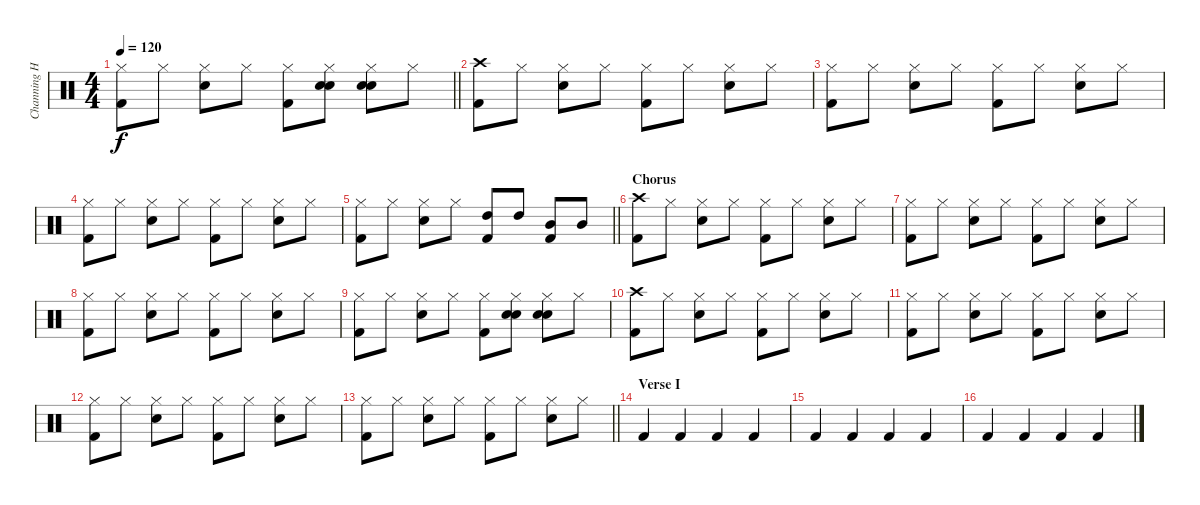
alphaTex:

\track ("Channing Holmes' drums" "Channing H") {instrument percussion}
\staff {score}
\articulation defaults
\ts (4 4)
\tempo 120
\clef neutral
\barLineRight lightlight
\ks c
("Hi-Hat (closed)" "Kick (hit) 2").8{dy f} "Hi-Hat (closed)".8 ("Hi-Hat (closed)" "Snare (hit) 2").8 "Hi-Hat (closed)".8 ("Hi-Hat (closed)" "Kick (hit) 2").8 ("Hand Clap (hit)" "Hi-Hat (closed)" "Snare (hit) 2").8 ("Hand Clap (hit)" "Hi-Hat (closed)" "Snare (hit) 2").8 "Hi-Hat (closed)".8 |
("Crash high (hit)" "Kick (hit) 2").8 "Hi-Hat (closed)".8 ("Hi-Hat (closed)" "Snare (hit) 2").8 "Hi-Hat (closed)".8 ("Hi-Hat (closed)" "Kick (hit) 2").8 "Hi-Hat (closed)".8 ("Hi-Hat (closed)" "Snare (hit) 2").8 "Hi-Hat (closed)".8 |
("Hi-Hat (closed)" "Kick (hit) 2").8 "Hi-Hat (closed)".8 ("Hi-Hat (closed)" "Snare (hit) 2").8 "Hi-Hat (closed)".8 ("Hi-Hat (closed)" "Kick (hit) 2").8 "Hi-Hat (closed)".8 ("Hi-Hat (closed)" "Snare (hit) 2").8 "Hi-Hat (closed)".8 |
("Hi-Hat (closed)" "Kick (hit) 2").8 "Hi-Hat (closed)".8 ("Hi-Hat (closed)" "Snare (hit) 2").8 "Hi-Hat (closed)".8 ("Hi-Hat (closed)" "Kick (hit) 2").8 "Hi-Hat (closed)".8 ("Hi-Hat (closed)" "Snare (hit) 2").8 "Hi-Hat (closed)".8 |
\barLineRight lightlight
("Hi-Hat (closed)" "Kick (hit) 2").8 "Hi-Hat (closed)".8 ("Hi-Hat (closed)" "Snare (hit) 2").8 "Hi-Hat (closed)".8 ("High Tom (hit)" "Kick (hit) 2").8 "High Tom (hit)".8 ("Mid Tom (hit)" "Kick (hit) 2").8 "Mid Tom (hit)".8 |
\section ("" "Chorus")
("Crash high (hit)" "Kick (hit) 2").8 "Hi-Hat (closed)".8 ("Hi-Hat (closed)" "Snare (hit) 2").8 "Hi-Hat (closed)".8 ("Hi-Hat (closed)" "Kick (hit) 2").8 "Hi-Hat (closed)".8 ("Hi-Hat (closed)" "Snare (hit) 2").8 "Hi-Hat (closed)".8 |
("Hi-Hat (closed)" "Kick (hit) 2").8 "Hi-Hat (closed)".8 ("Hi-Hat (closed)" "Snare (hit) 2").8 "Hi-Hat (closed)".8 ("Hi-Hat (closed)" "Kick (hit) 2").8 "Hi-Hat (closed)".8 ("Hi-Hat (closed)" "Snare (hit) 2").8 "Hi-Hat (closed)".8 |
("Hi-Hat (closed)" "Kick (hit) 2").8 "Hi-Hat (closed)".8 ("Hi-Hat (closed)" "Snare (hit) 2").8 "Hi-Hat (closed)".8 ("Hi-Hat (closed)" "Kick (hit) 2").8 "Hi-Hat (closed)".8 ("Hi-Hat (closed)" "Snare (hit) 2").8 "Hi-Hat (closed)".8 |
("Hi-Hat (closed)" "Kick (hit) 2").8 "Hi-Hat (closed)".8 ("Hi-Hat (closed)" "Snare (hit) 2").8 "Hi-Hat (closed)".8 ("Hi-Hat (closed)" "Kick (hit) 2").8 ("Hand Clap (hit)" "Hi-Hat (closed)" "Snare (hit) 2").8 ("Hand Clap (hit)" "Hi-Hat (closed)" "Snare (hit) 2").8 "Hi-Hat (closed)".8 |
("Crash high (hit)" "Kick (hit) 2").8 "Hi-Hat (closed)".8 ("Hi-Hat (closed)" "Snare (hit) 2").8 "Hi-Hat (closed)".8 ("Hi-Hat (closed)" "Kick (hit) 2").8 "Hi-Hat (closed)".8 ("Hi-Hat (closed)" "Snare (hit) 2").8 "Hi-Hat (closed)".8 |
("Hi-Hat (closed)" "Kick (hit) 2").8 "Hi-Hat (closed)".8 ("Hi-Hat (closed)" "Snare (hit) 2").8 "Hi-Hat (closed)".8 ("Hi-Hat (closed)" "Kick (hit) 2").8 "Hi-Hat (closed)".8 ("Hi-Hat (closed)" "Snare (hit) 2").8 "Hi-Hat (closed)".8 |
("Hi-Hat (closed)" "Kick (hit) 2").8 "Hi-Hat (closed)".8 ("Hi-Hat (closed)" "Snare (hit) 2").8 "Hi-Hat (closed)".8 ("Hi-Hat (closed)" "Kick (hit) 2").8 "Hi-Hat (closed)".8 ("Hi-Hat (closed)" "Snare (hit) 2").8 "Hi-Hat (closed)".8 |
\barLineRight lightlight
("Hi-Hat (closed)" "Kick (hit) 2").8 "Hi-Hat (closed)".8 ("Hi-Hat (closed)" "Snare (hit) 2").8 "Hi-Hat (closed)".8 ("Hi-Hat (closed)" "Kick (hit) 2").8 "Hi-Hat (closed)".8 ("Hi-Hat (closed)" "Snare (hit) 2").8 "Hi-Hat (closed)".8 |
\section ("" "Verse I")
"Kick (hit) 2".4 "Kick (hit) 2".4 "Kick (hit) 2".4 "Kick (hit) 2".4 |
"Kick (hit) 2".4 "Kick (hit) 2".4 "Kick (hit) 2".4 "Kick (hit) 2".4 |
"Kick (hit) 2".4 "Kick (hit) 2".4 "Kick (hit) 2".4 "Kick (hit) 2".4
